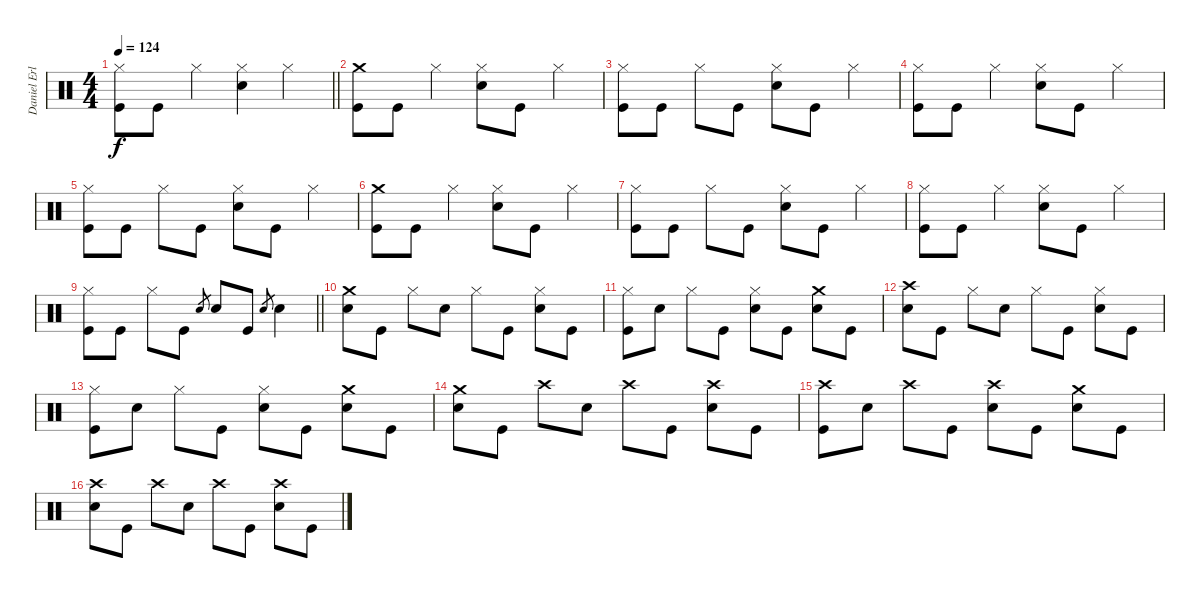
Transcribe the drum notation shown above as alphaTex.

\track ("Daniel Erlandsson" "Daniel Erl") {instrument percussion}
\staff {score}
\articulation defaults
\ts (4 4)
\tempo 124
\clef neutral
\barLineRight lightlight
\ks c
("Hi-Hat (closed)" "Kick (hit)").8{dy f} "Kick (hit)".8 "Hi-Hat (closed)".4 ("Hi-Hat (closed)" "Snare (hit) 2").4 "Hi-Hat (closed)".4 |
\section ("" "")
("Crash medium (hit)" "Kick (hit)").8 "Kick (hit)".8 "Hi-Hat (closed)".4 ("Hi-Hat (closed)" "Snare (hit) 2").8 "Kick (hit)".8 "Hi-Hat (closed)".4 |
("Hi-Hat (closed)" "Kick (hit)").8 "Kick (hit)".8 "Hi-Hat (closed)".8 "Kick (hit)".8 ("Hi-Hat (closed)" "Snare (hit) 2").8 "Kick (hit)".8 "Hi-Hat (closed)".4 |
("Hi-Hat (closed)" "Kick (hit)").8 "Kick (hit)".8 "Hi-Hat (closed)".4 ("Hi-Hat (closed)" "Snare (hit) 2").8 "Kick (hit)".8 "Hi-Hat (closed)".4 |
("Hi-Hat (closed)" "Kick (hit)").8 "Kick (hit)".8 "Hi-Hat (closed)".8 "Kick (hit)".8 ("Hi-Hat (closed)" "Snare (hit) 2").8 "Kick (hit)".8 "Hi-Hat (closed)".4 |
("Crash medium (hit)" "Kick (hit)").8 "Kick (hit)".8 "Hi-Hat (closed)".4 ("Hi-Hat (closed)" "Snare (hit) 2").8 "Kick (hit)".8 "Hi-Hat (closed)".4 |
("Hi-Hat (closed)" "Kick (hit)").8 "Kick (hit)".8 "Hi-Hat (closed)".8 "Kick (hit)".8 ("Hi-Hat (closed)" "Snare (hit) 2").8 "Kick (hit)".8 "Hi-Hat (closed)".4 |
("Hi-Hat (closed)" "Kick (hit)").8 "Kick (hit)".8 "Hi-Hat (closed)".4 ("Hi-Hat (closed)" "Snare (hit) 2").8 "Kick (hit)".8 "Hi-Hat (closed)".4 |
\barLineRight lightlight
("Hi-Hat (closed)" "Kick (hit)").8 "Kick (hit)".8 "Hi-Hat (closed)".8 "Kick (hit)".8 "Snare (hit) 2".8{gr} "Snare (hit) 2".8 "Kick (hit)".8 "Snare (hit) 2".8{gr} "Snare (hit) 2".4 |
\section ("" "")
("Crash medium (hit)" "Snare (hit) 2").8 "Kick (hit)".8 "Hi-Hat (closed)".8 "Snare (hit) 2".8 "Hi-Hat (closed)".8 "Kick (hit)".8 ("Hi-Hat (closed)" "Snare (hit) 2").8 "Kick (hit)".8 |
("Hi-Hat (closed)" "Kick (hit)").8 "Snare (hit) 2".8 "Hi-Hat (closed)".8 "Kick (hit)".8 ("Hi-Hat (closed)" "Snare (hit) 2").8 "Kick (hit)".8 ("Crash medium (hit)" "Snare (hit) 2").8 "Kick (hit)".8 |
("Crash high (hit)" "Snare (hit) 2").8 "Kick (hit)".8 "Hi-Hat (closed)".8 "Snare (hit) 2".8 "Hi-Hat (closed)".8 "Kick (hit)".8 ("Hi-Hat (closed)" "Snare (hit) 2").8 "Kick (hit)".8 |
("Hi-Hat (closed)" "Kick (hit)").8 "Snare (hit) 2".8 "Hi-Hat (closed)".8 "Kick (hit)".8 ("Hi-Hat (closed)" "Snare (hit) 2").8 "Kick (hit)".8 ("Crash medium (hit)" "Snare (hit) 2").8 "Kick (hit)".8 |
("Crash medium (hit)" "Snare (hit) 2").8 "Kick (hit)".8 "Crash high (hit)".8 "Snare (hit) 2".8 "Crash high (hit)".8 "Kick (hit)".8 ("Crash high (hit)" "Snare (hit) 2").8 "Kick (hit)".8 |
("Crash high (hit)" "Kick (hit)").8 "Snare (hit) 2".8 "Crash high (hit)".8 "Kick (hit)".8 ("Crash high (hit)" "Snare (hit) 2").8 "Kick (hit)".8 ("Crash medium (hit)" "Snare (hit) 2").8 "Kick (hit)".8 |
("Crash high (hit)" "Snare (hit) 2").8 "Kick (hit)".8 "Crash high (hit)".8 "Snare (hit) 2".8 "Crash high (hit)".8 "Kick (hit)".8 ("Crash high (hit)" "Snare (hit) 2").8 "Kick (hit)".8
